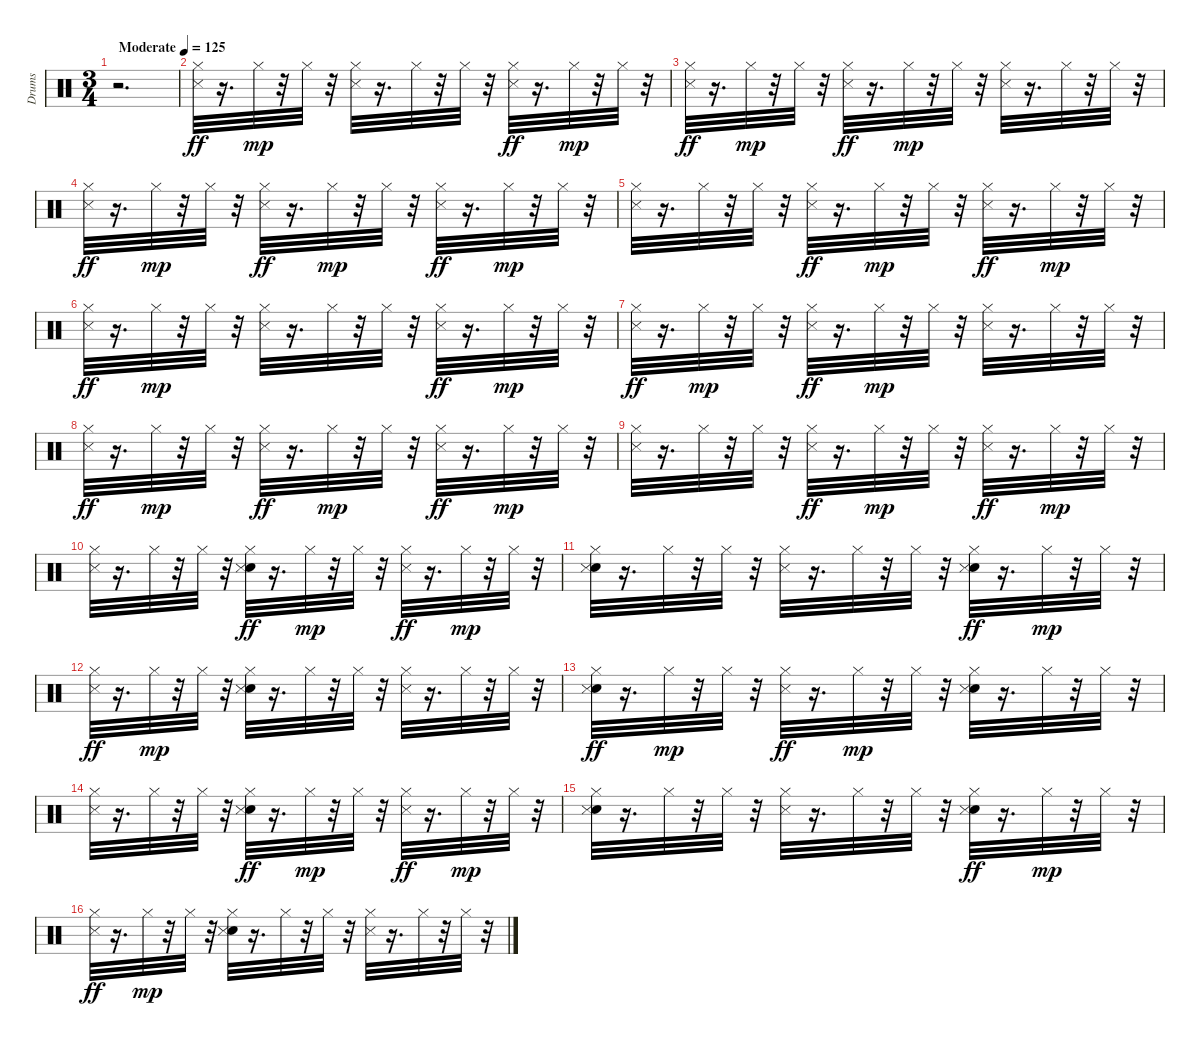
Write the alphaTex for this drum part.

\track ("Drums   " "Drums   ") {instrument percussion}
\staff {score}
\articulation defaults
\ts (3 4)
\tempo (125 "Moderate")
\clef neutral
\ks c
r.2{d dy ff} |
("Hi-Hat (closed)" "Metronome (hit)").32 r.16{d} "Hi-Hat (closed)".32{dy mp} r.32 "Hi-Hat (closed)".32 r.32 ("Metronome (hit)" "Hi-Hat (closed)").32 r.16{d} "Hi-Hat (closed)".32 r.32 "Hi-Hat (closed)".32 r.32 ("Hi-Hat (closed)" "Metronome (hit)").32{dy ff} r.16{d} "Hi-Hat (closed)".32{dy mp} r.32 "Hi-Hat (closed)".32 r.32 |
("Hi-Hat (closed)" "Metronome (hit)").32{dy ff} r.16{d} "Hi-Hat (closed)".32{dy mp} r.32 "Hi-Hat (closed)".32 r.32 ("Hi-Hat (closed)" "Metronome (hit)").32{dy ff} r.16{d} "Hi-Hat (closed)".32{dy mp} r.32 "Hi-Hat (closed)".32 r.32 ("Metronome (hit)" "Hi-Hat (closed)").32 r.16{d} "Hi-Hat (closed)".32 r.32 "Hi-Hat (closed)".32 r.32 |
("Hi-Hat (closed)" "Metronome (hit)").32{dy ff} r.16{d} "Hi-Hat (closed)".32{dy mp} r.32 "Hi-Hat (closed)".32 r.32 ("Hi-Hat (closed)" "Metronome (hit)").32{dy ff} r.16{d} "Hi-Hat (closed)".32{dy mp} r.32 "Hi-Hat (closed)".32 r.32 ("Hi-Hat (closed)" "Metronome (hit)").32{dy ff} r.16{d} "Hi-Hat (closed)".32{dy mp} r.32 "Hi-Hat (closed)".32 r.32 |
("Metronome (hit)" "Hi-Hat (closed)").32 r.16{d} "Hi-Hat (closed)".32 r.32 "Hi-Hat (closed)".32 r.32 ("Hi-Hat (closed)" "Metronome (hit)").32{dy ff} r.16{d} "Hi-Hat (closed)".32{dy mp} r.32 "Hi-Hat (closed)".32 r.32 ("Hi-Hat (closed)" "Metronome (hit)").32{dy ff} r.16{d} "Hi-Hat (closed)".32{dy mp} r.32 "Hi-Hat (closed)".32 r.32 |
("Hi-Hat (closed)" "Metronome (hit)").32{dy ff} r.16{d} "Hi-Hat (closed)".32{dy mp} r.32 "Hi-Hat (closed)".32 r.32 ("Metronome (hit)" "Hi-Hat (closed)").32 r.16{d} "Hi-Hat (closed)".32 r.32 "Hi-Hat (closed)".32 r.32 ("Hi-Hat (closed)" "Metronome (hit)").32{dy ff} r.16{d} "Hi-Hat (closed)".32{dy mp} r.32 "Hi-Hat (closed)".32 r.32 |
("Hi-Hat (closed)" "Metronome (hit)").32{dy ff} r.16{d} "Hi-Hat (closed)".32{dy mp} r.32 "Hi-Hat (closed)".32 r.32 ("Hi-Hat (closed)" "Metronome (hit)").32{dy ff} r.16{d} "Hi-Hat (closed)".32{dy mp} r.32 "Hi-Hat (closed)".32 r.32 ("Metronome (hit)" "Hi-Hat (closed)").32 r.16{d} "Hi-Hat (closed)".32 r.32 "Hi-Hat (closed)".32 r.32 |
("Hi-Hat (closed)" "Metronome (hit)").32{dy ff} r.16{d} "Hi-Hat (closed)".32{dy mp} r.32 "Hi-Hat (closed)".32 r.32 ("Hi-Hat (closed)" "Metronome (hit)").32{dy ff} r.16{d} "Hi-Hat (closed)".32{dy mp} r.32 "Hi-Hat (closed)".32 r.32 ("Hi-Hat (closed)" "Metronome (hit)").32{dy ff} r.16{d} "Hi-Hat (closed)".32{dy mp} r.32 "Hi-Hat (closed)".32 r.32 |
("Metronome (hit)" "Hi-Hat (closed)").32 r.16{d} "Hi-Hat (closed)".32 r.32 "Hi-Hat (closed)".32 r.32 ("Hi-Hat (closed)" "Metronome (hit)").32{dy ff} r.16{d} "Hi-Hat (closed)".32{dy mp} r.32 "Hi-Hat (closed)".32 r.32 ("Hi-Hat (closed)" "Metronome (hit)").32{dy ff} r.16{d} "Hi-Hat (closed)".32{dy mp} r.32 "Hi-Hat (closed)".32 r.32 |
("Metronome (hit)" "Hi-Hat (closed)").32 r.16{d} "Hi-Hat (closed)".32 r.32 "Hi-Hat (closed)".32 r.32 ("Hi-Hat (closed)" "Snare (hit) 2" "Metronome (hit)").32{dy ff} r.16{d} "Hi-Hat (closed)".32{dy mp} r.32 "Hi-Hat (closed)".32 r.32 ("Hi-Hat (closed)" "Metronome (hit)").32{dy ff} r.16{d} "Hi-Hat (closed)".32{dy mp} r.32 "Hi-Hat (closed)".32 r.32 |
("Snare (hit) 2" "Metronome (hit)" "Hi-Hat (closed)").32 r.16{d} "Hi-Hat (closed)".32 r.32 "Hi-Hat (closed)".32 r.32 ("Metronome (hit)" "Hi-Hat (closed)").32 r.16{d} "Hi-Hat (closed)".32 r.32 "Hi-Hat (closed)".32 r.32 ("Hi-Hat (closed)" "Snare (hit) 2" "Metronome (hit)").32{dy ff} r.16{d} "Hi-Hat (closed)".32{dy mp} r.32 "Hi-Hat (closed)".32 r.32 |
("Hi-Hat (closed)" "Metronome (hit)").32{dy ff} r.16{d} "Hi-Hat (closed)".32{dy mp} r.32 "Hi-Hat (closed)".32 r.32 ("Snare (hit) 2" "Metronome (hit)" "Hi-Hat (closed)").32 r.16{d} "Hi-Hat (closed)".32 r.32 "Hi-Hat (closed)".32 r.32 ("Metronome (hit)" "Hi-Hat (closed)").32 r.16{d} "Hi-Hat (closed)".32 r.32 "Hi-Hat (closed)".32 r.32 |
("Hi-Hat (closed)" "Snare (hit) 2" "Metronome (hit)").32{dy ff} r.16{d} "Hi-Hat (closed)".32{dy mp} r.32 "Hi-Hat (closed)".32 r.32 ("Hi-Hat (closed)" "Metronome (hit)").32{dy ff} r.16{d} "Hi-Hat (closed)".32{dy mp} r.32 "Hi-Hat (closed)".32 r.32 ("Snare (hit) 2" "Metronome (hit)" "Hi-Hat (closed)").32 r.16{d} "Hi-Hat (closed)".32 r.32 "Hi-Hat (closed)".32 r.32 |
("Metronome (hit)" "Hi-Hat (closed)").32 r.16{d} "Hi-Hat (closed)".32 r.32 "Hi-Hat (closed)".32 r.32 ("Hi-Hat (closed)" "Snare (hit) 2" "Metronome (hit)").32{dy ff} r.16{d} "Hi-Hat (closed)".32{dy mp} r.32 "Hi-Hat (closed)".32 r.32 ("Hi-Hat (closed)" "Metronome (hit)").32{dy ff} r.16{d} "Hi-Hat (closed)".32{dy mp} r.32 "Hi-Hat (closed)".32 r.32 |
("Snare (hit) 2" "Metronome (hit)" "Hi-Hat (closed)").32 r.16{d} "Hi-Hat (closed)".32 r.32 "Hi-Hat (closed)".32 r.32 ("Metronome (hit)" "Hi-Hat (closed)").32 r.16{d} "Hi-Hat (closed)".32 r.32 "Hi-Hat (closed)".32 r.32 ("Hi-Hat (closed)" "Snare (hit) 2" "Metronome (hit)").32{dy ff} r.16{d} "Hi-Hat (closed)".32{dy mp} r.32 "Hi-Hat (closed)".32 r.32 |
("Hi-Hat (closed)" "Metronome (hit)").32{dy ff} r.16{d} "Hi-Hat (closed)".32{dy mp} r.32 "Hi-Hat (closed)".32 r.32 ("Snare (hit) 2" "Metronome (hit)" "Hi-Hat (closed)").32 r.16{d} "Hi-Hat (closed)".32 r.32 "Hi-Hat (closed)".32 r.32 ("Metronome (hit)" "Hi-Hat (closed)").32 r.16{d} "Hi-Hat (closed)".32 r.32 "Hi-Hat (closed)".32 r.32
